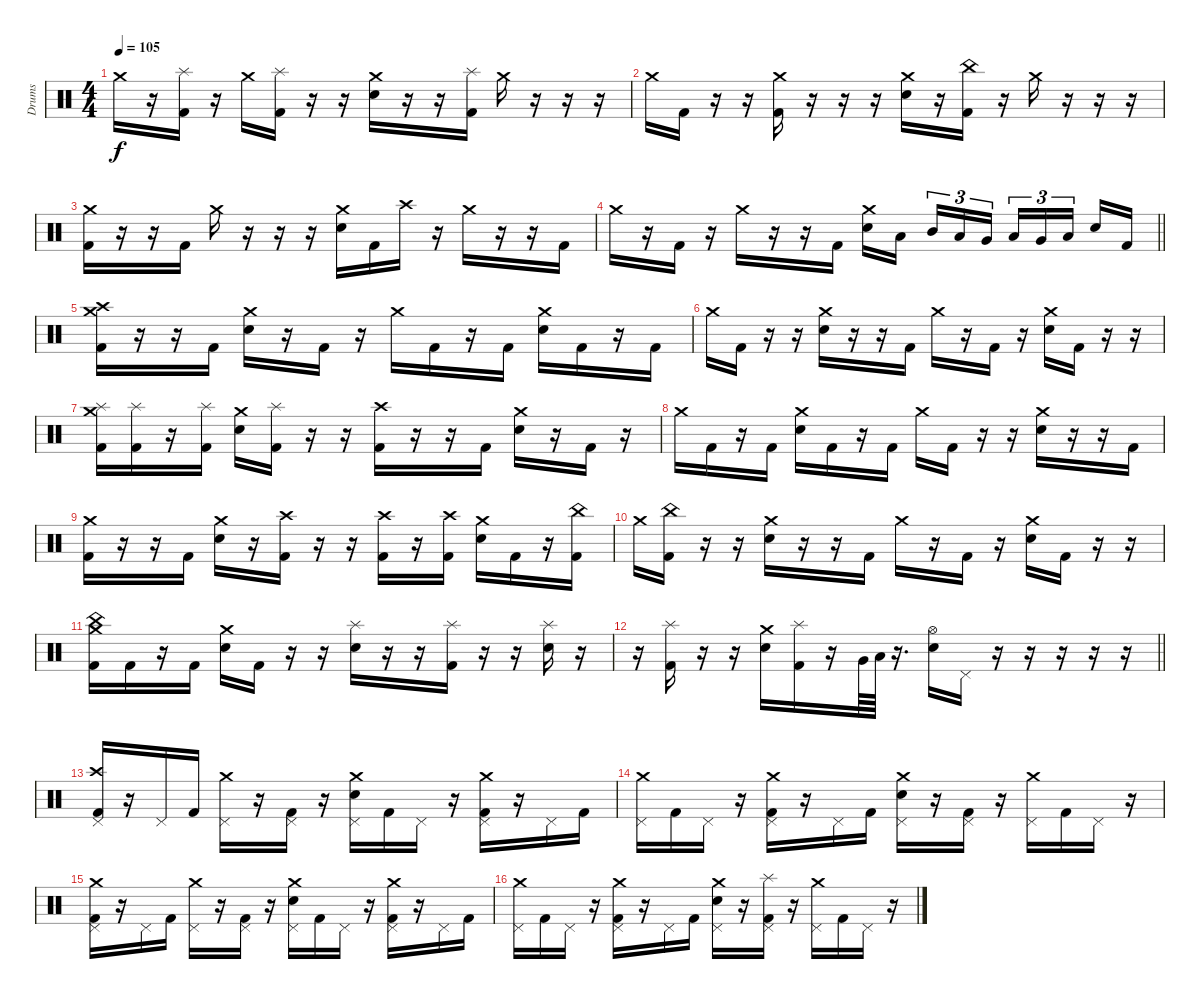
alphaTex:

\track ("Drums" "Drums") {instrument percussion}
\staff {score}
\articulation defaults
\ts (4 4)
\tempo 105
\clef neutral
\ks c "Crash medium (hit)".16{dy f}
r.16 ("Splash (hit)" "Kick (hit) 2").16 r.16 "Crash medium (hit)".16 ("Splash (hit)" "Kick (hit) 2").16 r.16 r.16 ("Crash medium (hit)" "Electric Snare (hit)").16 r.16 r.16 ("Splash (hit)" "Kick (hit) 2").16 "Crash medium (hit)".16 r.16 r.16 r.16 |
"Crash medium (hit)".16 "Kick (hit) 2".16 r.16 r.16 ("Crash medium (hit)" "Kick (hit) 2").16 r.16 r.16 r.16 ("Crash medium (hit)" "Electric Snare (hit)").16 r.16 ("China (hit)" "Kick (hit) 2").16 r.16 "Crash medium (hit)".16 r.16 r.16 r.16 |
("Crash medium (hit)" "Kick (hit) 2").16 r.16 r.16 "Kick (hit) 2".16 "Crash medium (hit)".16 r.16 r.16 r.16 ("Crash medium (hit)" "Electric Snare (hit)").16 "Kick (hit) 2".16 "Crash high (hit)".16 r.16 "Crash medium (hit)".16 r.16 r.16 "Kick (hit) 2".16 |
\barLineRight lightlight "Crash medium (hit)".16
r.16 "Kick (hit) 2".16 r.16 "Crash medium (hit)".16 r.16 r.16 "Kick (hit) 2".16 ("Crash medium (hit)" "Electric Snare (hit)").16 "Low Tom (hit)".16 "Mid Tom (hit)".16{tu (3 2)} "Low Tom (hit)".16{tu (3 2)} "Very Low Tom (hit)".16{tu (3 2)} "Low Tom (hit)".16{tu (3 2)} "Very Low Tom (hit)".16{tu (3 2)} "Low Floor Tom (hit)".16{tu (3 2)} "Electric Snare (hit)".16 "Kick (hit) 2".16 |
\section ("" "")
("Crash high (hit)" "Crash medium (hit)" "Kick (hit) 2").16 r.16 r.16 "Kick (hit) 2".16 ("Crash medium (hit)" "Electric Snare (hit)").16 r.16 "Kick (hit) 2".16 r.16 "Crash medium (hit)".16 "Kick (hit) 2".16 r.16 "Kick (hit) 2".16 ("Crash medium (hit)" "Electric Snare (hit)").16 "Kick (hit) 2".16 r.16 "Kick (hit) 2".16 |
"Crash medium (hit)".16 "Kick (hit) 2".16 r.16 r.16 ("Crash medium (hit)" "Electric Snare (hit)").16 r.16 r.16 "Kick (hit) 2".16 "Crash medium (hit)".16 r.16 "Kick (hit) 2".16 r.16 ("Crash medium (hit)" "Electric Snare (hit)").16 "Kick (hit) 2".16 r.16 r.16 |
("Splash (hit)" "Crash medium (hit)" "Kick (hit) 2").16 ("Splash (hit)" "Kick (hit) 2").16 r.16 ("Splash (hit)" "Kick (hit) 2").16 ("Crash medium (hit)" "Electric Snare (hit)").16 ("Splash (hit)" "Kick (hit) 2").16 r.16 r.16 ("Crash high (hit)" "Kick (hit) 2").16 r.16 r.16 "Kick (hit) 2".16 ("Crash medium (hit)" "Electric Snare (hit)").16 r.16 "Kick (hit) 2".16 r.16 |
"Crash medium (hit)".16 "Kick (hit) 2".16 r.16 "Kick (hit) 2".16 ("Crash medium (hit)" "Electric Snare (hit)").16 "Kick (hit) 2".16 r.16 "Kick (hit) 2".16 "Crash medium (hit)".16 "Kick (hit) 2".16 r.16 r.16 ("Crash medium (hit)" "Electric Snare (hit)").16 r.16 r.16 "Kick (hit) 2".16 |
("Crash medium (hit)" "Kick (hit) 2").16 r.16 r.16 "Kick (hit) 2".16 ("Crash medium (hit)" "Electric Snare (hit)").16 r.16 ("Crash high (hit)" "Kick (hit) 2").16 r.16 r.16 ("Crash high (hit)" "Kick (hit) 2").16 r.16 ("Crash high (hit)" "Kick (hit) 2").16 ("Crash medium (hit)" "Electric Snare (hit)").16 "Kick (hit) 2".16 r.16 ("China (hit)" "Kick (hit) 2").16 |
"Crash medium (hit)".16 ("China (hit)" "Kick (hit) 2").16 r.16 r.16 ("Crash medium (hit)" "Electric Snare (hit)").16 r.16 r.16 "Kick (hit) 2".16 "Crash medium (hit)".16 r.16 "Kick (hit) 2".16 r.16 ("Crash medium (hit)" "Electric Snare (hit)").16 "Kick (hit) 2".16 r.16 r.16 |
("China (hit)" "Crash medium (hit)" "Kick (hit) 2").16 "Kick (hit) 2".16 r.16 "Kick (hit) 2".16 ("Crash medium (hit)" "Electric Snare (hit)").16 "Kick (hit) 2".16 r.16 r.16 ("Splash (hit)" "Electric Snare (hit)").16 r.16 r.16 ("Splash (hit)" "Kick (hit) 2").16 r.16 r.16 ("Splash (hit)" "Electric Snare (hit)").16 r.16 |
\barLineRight lightlight
r.16 ("Splash (hit)" "Kick (hit) 2").16 r.16 r.16 ("Crash medium (hit)" "Electric Snare (hit)").16 ("Splash (hit)" "Kick (hit) 2").16 r.16 "Very Low Tom (hit)".64 "Low Tom (hit)".64 r.16{d} ("Hi-Hat (open)" "Electric Snare (hit)").16 "Pedal Hi-Hat (hit)".16 r.16 r.16 r.16 r.16 r.16 |
\section ("" "")
("Crash high (hit)" "Pedal Hi-Hat (hit)" "Kick (hit) 2").16 r.16 "Pedal Hi-Hat (hit)".16 "Kick (hit) 2".16 ("Crash medium (hit)" "Pedal Hi-Hat (hit)").16 r.16 ("Pedal Hi-Hat (hit)" "Kick (hit) 2").16 r.16 ("Crash medium (hit)" "Pedal Hi-Hat (hit)" "Electric Snare (hit)").16 "Kick (hit) 2".16 "Pedal Hi-Hat (hit)".16 r.16 ("Crash medium (hit)" "Pedal Hi-Hat (hit)" "Kick (hit) 2").16 r.16 "Pedal Hi-Hat (hit)".16 "Kick (hit) 2".16 |
("Crash medium (hit)" "Pedal Hi-Hat (hit)").16 "Kick (hit) 2".16 "Pedal Hi-Hat (hit)".16 r.16 ("Crash medium (hit)" "Pedal Hi-Hat (hit)" "Kick (hit) 2").16 r.16 "Pedal Hi-Hat (hit)".16 "Kick (hit) 2".16 ("Crash medium (hit)" "Pedal Hi-Hat (hit)" "Electric Snare (hit)").16 r.16 ("Pedal Hi-Hat (hit)" "Kick (hit) 2").16 r.16 ("Crash medium (hit)" "Pedal Hi-Hat (hit)").16 "Kick (hit) 2".16 "Pedal Hi-Hat (hit)".16 r.16 |
("Crash medium (hit)" "Pedal Hi-Hat (hit)" "Kick (hit) 2").16 r.16 "Pedal Hi-Hat (hit)".16 "Kick (hit) 2".16 ("Crash medium (hit)" "Pedal Hi-Hat (hit)").16 r.16 ("Pedal Hi-Hat (hit)" "Kick (hit) 2").16 r.16 ("Crash medium (hit)" "Pedal Hi-Hat (hit)" "Electric Snare (hit)").16 "Kick (hit) 2".16 "Pedal Hi-Hat (hit)".16 r.16 ("Crash medium (hit)" "Pedal Hi-Hat (hit)" "Kick (hit) 2").16 r.16 "Pedal Hi-Hat (hit)".16 "Kick (hit) 2".16 |
("Crash medium (hit)" "Pedal Hi-Hat (hit)").16 "Kick (hit) 2".16 "Pedal Hi-Hat (hit)".16 r.16 ("Crash medium (hit)" "Pedal Hi-Hat (hit)" "Kick (hit) 2").16 r.16 "Pedal Hi-Hat (hit)".16 "Kick (hit) 2".16 ("Crash medium (hit)" "Pedal Hi-Hat (hit)" "Electric Snare (hit)").16 r.16 ("Splash (hit)" "Pedal Hi-Hat (hit)" "Kick (hit) 2").16 r.16 ("Crash medium (hit)" "Pedal Hi-Hat (hit)").16 "Kick (hit) 2".16 "Pedal Hi-Hat (hit)".16 r.16
